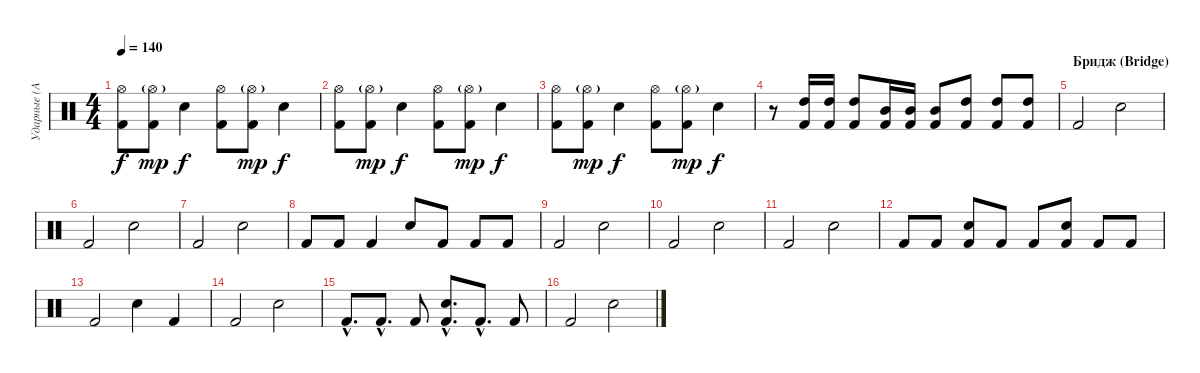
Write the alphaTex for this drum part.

\track ("Ударные (Алексей Барзилович)" "Ударные (А") {instrument percussion}
\staff {score}
\articulation defaults
\ts (4 4)
\tempo 140
\clef neutral
\ks c
("Hi-Hat (open)" "Kick (hit) 2").8{dy f} ("Hi-Hat (open)"{g} "Kick (hit) 2").8{dy mp} "Electric Snare (hit)".4{dy f} ("Hi-Hat (open)" "Kick (hit) 2").8 ("Hi-Hat (open)"{g} "Kick (hit) 2").8{dy mp} "Electric Snare (hit)".4{dy f} |
("Hi-Hat (open)" "Kick (hit) 2").8 ("Hi-Hat (open)"{g} "Kick (hit) 2").8{dy mp} "Electric Snare (hit)".4{dy f} ("Hi-Hat (open)" "Kick (hit) 2").8 ("Hi-Hat (open)"{g} "Kick (hit) 2").8{dy mp} "Electric Snare (hit)".4{dy f} |
("Hi-Hat (open)" "Kick (hit) 2").8 ("Hi-Hat (open)"{g} "Kick (hit) 2").8{dy mp} "Electric Snare (hit)".4{dy f} ("Hi-Hat (open)" "Kick (hit) 2").8 ("Hi-Hat (open)"{g} "Kick (hit) 2").8{dy mp} "Electric Snare (hit)".4{dy f} |
r.8 ("High Tom (hit)" "Kick (hit) 2").16 ("High Tom (hit)" "Kick (hit) 2").16 ("High Tom (hit)" "Kick (hit) 2").8 ("Mid Tom (hit)" "Kick (hit) 2").16 ("Mid Tom (hit)" "Kick (hit) 2").16 ("Mid Tom (hit)" "Kick (hit) 2").8 ("High Tom (hit)" "Kick (hit) 2").8 ("High Tom (hit)" "Kick (hit) 2").8 ("High Tom (hit)" "Kick (hit) 2").8 |
\section ("" "Бридж (Bridge)")
"Kick (hit) 2".2 "Electric Snare (hit)".2 |
"Kick (hit) 2".2 "Electric Snare (hit)".2 |
"Kick (hit) 2".2 "Electric Snare (hit)".2 |
"Kick (hit) 2".8 "Kick (hit) 2".8 "Kick (hit) 2".4 "Electric Snare (hit)".8 "Kick (hit) 2".8 "Kick (hit) 2".8 "Kick (hit) 2".8 |
"Kick (hit) 2".2 "Electric Snare (hit)".2 |
"Kick (hit) 2".2 "Electric Snare (hit)".2 |
"Kick (hit) 2".2 "Electric Snare (hit)".2 |
"Kick (hit) 2".8 "Kick (hit) 2".8 ("Electric Snare (hit)" "Kick (hit) 2").8 "Kick (hit) 2".8 "Kick (hit) 2".8 ("Electric Snare (hit)" "Kick (hit) 2").8 "Kick (hit) 2".8 "Kick (hit) 2".8 |
"Kick (hit) 2".2 "Electric Snare (hit)".4 "Kick (hit) 2".4 |
"Kick (hit) 2".2 "Electric Snare (hit)".2 |
"Kick (hit) 2"{hac}.8{d} "Kick (hit) 2"{hac}.8{d} "Kick (hit) 2".8 ("Electric Snare (hit)"{hac} "Kick (hit) 2"{hac}).8{d} "Kick (hit) 2"{hac}.8{d} "Kick (hit) 2".8 |
"Kick (hit) 2".2 "Electric Snare (hit)".2
